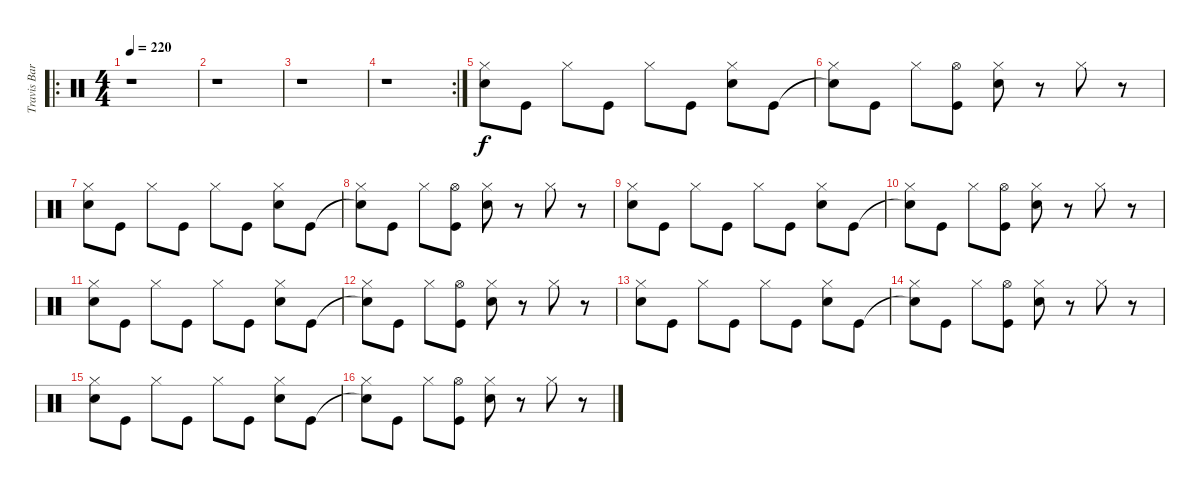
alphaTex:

\track ("Travis Barker (Drums)" "Travis Bar") {instrument percussion}
\staff {score}
\articulation defaults
\ro
\ts (4 4)
\tempo 220
\clef neutral
\ks c
r.1{dy f} |
r.1 |
r.1 |
\rc 2
r.1 |
("Electric Snare (hit)" "Hi-Hat (closed)").8 "Kick (hit)".8 "Hi-Hat (closed)".8 "Kick (hit)".8 "Hi-Hat (closed)".8 "Kick (hit)".8 ("Electric Snare (hit)" "Hi-Hat (closed)").8 "Kick (hit)".8 |
("Snare (hit)"{t} "Hi-Hat (closed)").8 "Kick (hit)".8 "Hi-Hat (closed)".8 ("Kick (hit)" "Hi-Hat (open)").8 ("Electric Snare (hit)" "Hi-Hat (closed)").8 r.8 "Hi-Hat (closed)".8 r.8 |
("Electric Snare (hit)" "Hi-Hat (closed)").8 "Kick (hit)".8 "Hi-Hat (closed)".8 "Kick (hit)".8 "Hi-Hat (closed)".8 "Kick (hit)".8 ("Electric Snare (hit)" "Hi-Hat (closed)").8 "Kick (hit)".8 |
("Snare (hit)"{t} "Hi-Hat (closed)").8 "Kick (hit)".8 "Hi-Hat (closed)".8 ("Kick (hit)" "Hi-Hat (open)").8 ("Electric Snare (hit)" "Hi-Hat (closed)").8 r.8 "Hi-Hat (closed)".8 r.8 |
("Electric Snare (hit)" "Hi-Hat (closed)").8 "Kick (hit)".8 "Hi-Hat (closed)".8 "Kick (hit)".8 "Hi-Hat (closed)".8 "Kick (hit)".8 ("Electric Snare (hit)" "Hi-Hat (closed)").8 "Kick (hit)".8 |
("Snare (hit)"{t} "Hi-Hat (closed)").8 "Kick (hit)".8 "Hi-Hat (closed)".8 ("Kick (hit)" "Hi-Hat (open)").8 ("Electric Snare (hit)" "Hi-Hat (closed)").8 r.8 "Hi-Hat (closed)".8 r.8 |
("Electric Snare (hit)" "Hi-Hat (closed)").8 "Kick (hit)".8 "Hi-Hat (closed)".8 "Kick (hit)".8 "Hi-Hat (closed)".8 "Kick (hit)".8 ("Electric Snare (hit)" "Hi-Hat (closed)").8 "Kick (hit)".8 |
("Snare (hit)"{t} "Hi-Hat (closed)").8 "Kick (hit)".8 "Hi-Hat (closed)".8 ("Kick (hit)" "Hi-Hat (open)").8 ("Electric Snare (hit)" "Hi-Hat (closed)").8 r.8 "Hi-Hat (closed)".8 r.8 |
("Electric Snare (hit)" "Hi-Hat (closed)").8 "Kick (hit)".8 "Hi-Hat (closed)".8 "Kick (hit)".8 "Hi-Hat (closed)".8 "Kick (hit)".8 ("Electric Snare (hit)" "Hi-Hat (closed)").8 "Kick (hit)".8 |
("Snare (hit)"{t} "Hi-Hat (closed)").8 "Kick (hit)".8 "Hi-Hat (closed)".8 ("Kick (hit)" "Hi-Hat (open)").8 ("Electric Snare (hit)" "Hi-Hat (closed)").8 r.8 "Hi-Hat (closed)".8 r.8 |
("Electric Snare (hit)" "Hi-Hat (closed)").8 "Kick (hit)".8 "Hi-Hat (closed)".8 "Kick (hit)".8 "Hi-Hat (closed)".8 "Kick (hit)".8 ("Electric Snare (hit)" "Hi-Hat (closed)").8 "Kick (hit)".8 |
("Snare (hit)"{t} "Hi-Hat (closed)").8 "Kick (hit)".8 "Hi-Hat (closed)".8 ("Kick (hit)" "Hi-Hat (open)").8 ("Electric Snare (hit)" "Hi-Hat (closed)").8 r.8 "Hi-Hat (closed)".8 r.8
